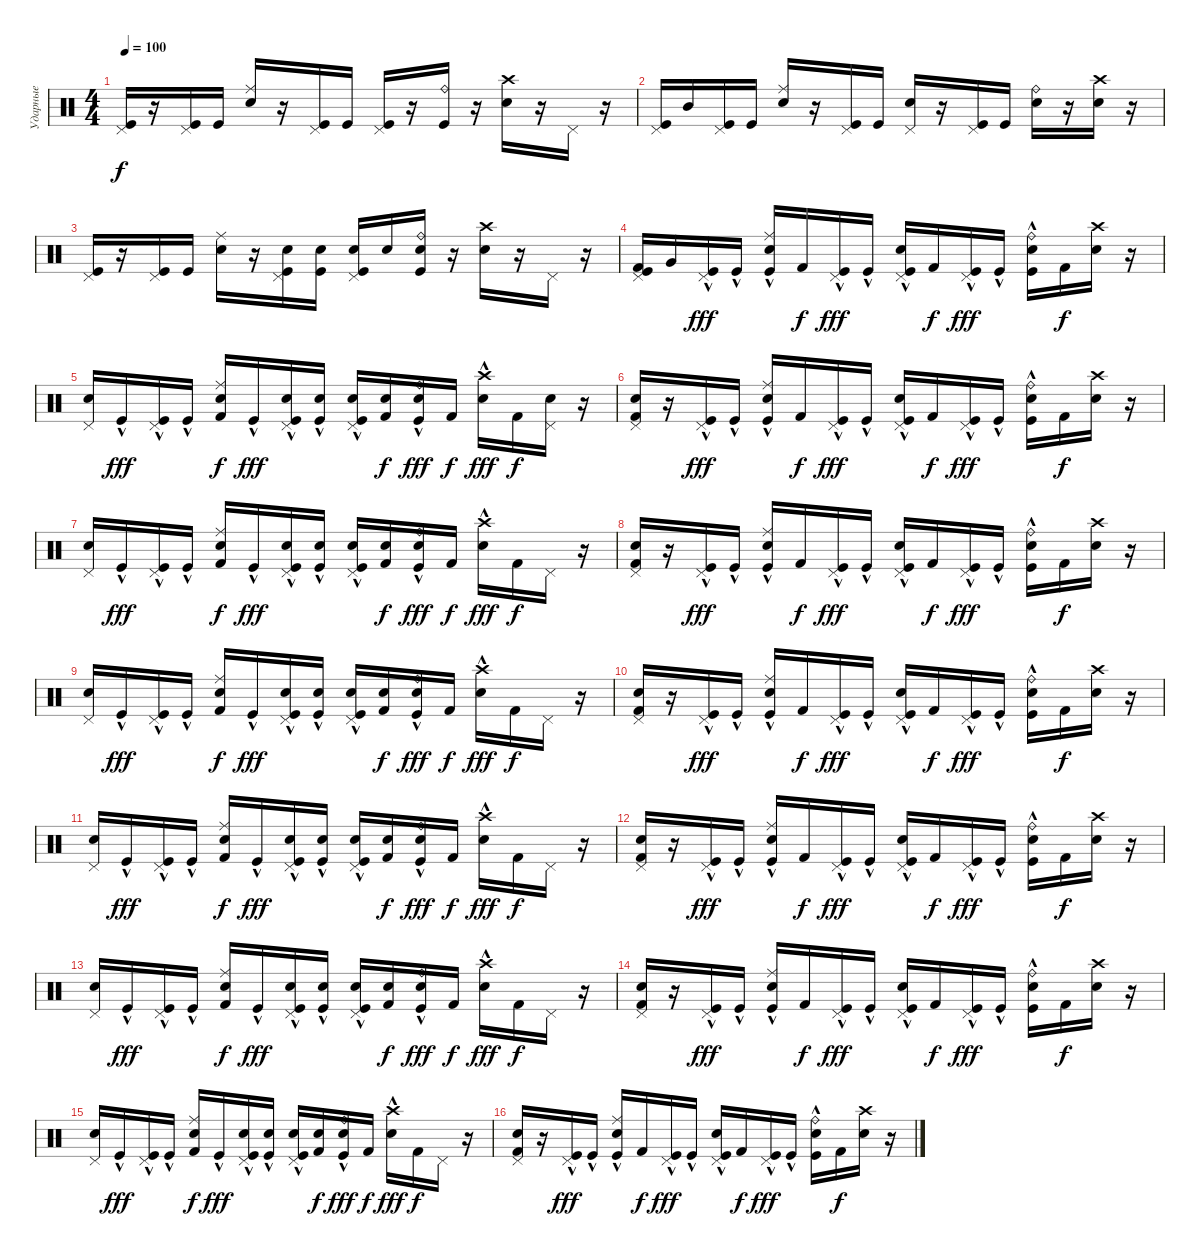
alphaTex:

\track ("Ударные" "Ударные") {instrument percussion}
\staff {score}
\articulation defaults
\ts (4 4)
\tempo 100
\clef neutral
\ks c
("Kick (hit)" "Pedal Hi-Hat (hit)").16{dy f} r.16 ("Kick (hit)" "Pedal Hi-Hat (hit)").16 "Kick (hit)".16 ("Electric Snare (hit)" "Ride (middle)").16 r.16 ("Kick (hit)" "Pedal Hi-Hat (hit)").16 "Kick (hit)".16 ("Kick (hit)" "Pedal Hi-Hat (hit)").16 r.16 ("Kick (hit)" "Ride (bell)").16 r.16 ("Electric Snare (hit)" "Crash high (hit)").16 r.16 "Pedal Hi-Hat (hit)".16 r.16 |
("Kick (hit)" "Pedal Hi-Hat (hit)").16 "Mid Tom (hit)".16 ("Kick (hit)" "Pedal Hi-Hat (hit)").16 "Kick (hit)".16 ("Electric Snare (hit)" "Ride (middle)").16 r.16 ("Kick (hit)" "Pedal Hi-Hat (hit)").16 "Kick (hit)".16 ("Snare (hit) 2" "Pedal Hi-Hat (hit)").16 r.16 ("Kick (hit)" "Pedal Hi-Hat (hit)").16 "Kick (hit)".16 ("Electric Snare (hit)" "Ride (bell)").16 r.16 ("Snare (hit) 2" "Crash high (hit)").16 r.16 |
("Kick (hit)" "Pedal Hi-Hat (hit)").16 r.16 ("Kick (hit)" "Pedal Hi-Hat (hit)").16 "Kick (hit)".16 ("Electric Snare (hit)" "Ride (middle)").16 r.16 ("Snare (hit) 2" "Kick (hit)" "Pedal Hi-Hat (hit)").16 ("Snare (hit) 2" "Kick (hit)").16 ("Snare (hit) 2" "Kick (hit)" "Pedal Hi-Hat (hit)").16 "Snare (hit) 2".16 ("Snare (hit) 2" "Kick (hit)" "Ride (bell)").16 r.16 ("Electric Snare (hit)" "Crash high (hit)").16 r.16 "Pedal Hi-Hat (hit)".16 r.16 |
("Kick (hit)" "Kick (hit) 2" "Pedal Hi-Hat (hit)").16 "Very Low Tom (hit)".16 ("Kick (hit)"{hac} "Pedal Hi-Hat (hit)").16{dy fff} "Kick (hit)"{hac}.16 ("Electric Snare (hit)" "Kick (hit)"{hac} "Ride (middle)").16 "Kick (hit) 2".16{dy f} ("Kick (hit)"{hac} "Pedal Hi-Hat (hit)").16{dy fff} "Kick (hit)"{hac}.16 ("Snare (hit) 2" "Kick (hit)"{hac} "Pedal Hi-Hat (hit)").16 "Kick (hit) 2".16{dy f} ("Kick (hit)"{hac} "Pedal Hi-Hat (hit)").16{dy fff} "Kick (hit)"{hac}.16 ("Electric Snare (hit)" "Kick (hit)"{hac} "Ride (bell)").16 "Kick (hit) 2".16{dy f} ("Snare (hit) 2" "Crash high (hit)").16 r.16 |
("Snare (hit) 2" "Pedal Hi-Hat (hit)").16 "Kick (hit)"{hac}.16{dy fff} ("Kick (hit)"{hac} "Pedal Hi-Hat (hit)").16 "Kick (hit)"{hac}.16 ("Electric Snare (hit)" "Kick (hit) 2" "Ride (middle)").16{dy f} "Kick (hit)"{hac}.16{dy fff} ("Snare (hit) 2" "Kick (hit)"{hac} "Pedal Hi-Hat (hit)").16 ("Snare (hit) 2" "Kick (hit)"{hac}).16 ("Snare (hit) 2" "Kick (hit)"{hac} "Pedal Hi-Hat (hit)").16 ("Snare (hit) 2" "Kick (hit) 2").16{dy f} ("Snare (hit) 2" "Kick (hit)"{hac} "Ride (bell)").16{dy fff} "Kick (hit) 2".16{dy f} ("Electric Snare (hit)"{hac} "Crash high (hit)").16{dy fff} "Kick (hit) 2".16{dy f} ("Pedal Hi-Hat (hit)" "Snare (hit) 2").16 r.16 |
("Snare (hit) 2" "Kick (hit) 2" "Pedal Hi-Hat (hit)").16 r.16 ("Kick (hit)"{hac} "Pedal Hi-Hat (hit)").16{dy fff} "Kick (hit)"{hac}.16 ("Electric Snare (hit)" "Kick (hit)"{hac} "Ride (middle)").16 "Kick (hit) 2".16{dy f} ("Kick (hit)"{hac} "Pedal Hi-Hat (hit)").16{dy fff} "Kick (hit)"{hac}.16 ("Snare (hit) 2" "Kick (hit)"{hac} "Pedal Hi-Hat (hit)").16 "Kick (hit) 2".16{dy f} ("Kick (hit)"{hac} "Pedal Hi-Hat (hit)").16{dy fff} "Kick (hit)"{hac}.16 ("Electric Snare (hit)" "Kick (hit)"{hac} "Ride (bell)").16 "Kick (hit) 2".16{dy f} ("Snare (hit) 2" "Crash high (hit)").16 r.16 |
("Snare (hit) 2" "Pedal Hi-Hat (hit)").16 "Kick (hit)"{hac}.16{dy fff} ("Kick (hit)"{hac} "Pedal Hi-Hat (hit)").16 "Kick (hit)"{hac}.16 ("Electric Snare (hit)" "Kick (hit) 2" "Ride (middle)").16{dy f} "Kick (hit)"{hac}.16{dy fff} ("Snare (hit) 2" "Kick (hit)"{hac} "Pedal Hi-Hat (hit)").16 ("Snare (hit) 2" "Kick (hit)"{hac}).16 ("Snare (hit) 2" "Kick (hit)"{hac} "Pedal Hi-Hat (hit)").16 ("Snare (hit) 2" "Kick (hit) 2").16{dy f} ("Snare (hit) 2" "Kick (hit)"{hac} "Ride (bell)").16{dy fff} "Kick (hit) 2".16{dy f} ("Electric Snare (hit)"{hac} "Crash high (hit)").16{dy fff} "Kick (hit) 2".16{dy f} "Pedal Hi-Hat (hit)".16 r.16 |
("Snare (hit) 2" "Kick (hit) 2" "Pedal Hi-Hat (hit)").16 r.16 ("Kick (hit)"{hac} "Pedal Hi-Hat (hit)").16{dy fff} "Kick (hit)"{hac}.16 ("Electric Snare (hit)" "Kick (hit)"{hac} "Ride (middle)").16 "Kick (hit) 2".16{dy f} ("Kick (hit)"{hac} "Pedal Hi-Hat (hit)").16{dy fff} "Kick (hit)"{hac}.16 ("Snare (hit) 2" "Kick (hit)"{hac} "Pedal Hi-Hat (hit)").16 "Kick (hit) 2".16{dy f} ("Kick (hit)"{hac} "Pedal Hi-Hat (hit)").16{dy fff} "Kick (hit)"{hac}.16 ("Electric Snare (hit)" "Kick (hit)"{hac} "Ride (bell)").16 "Kick (hit) 2".16{dy f} ("Snare (hit) 2" "Crash high (hit)").16 r.16 |
("Snare (hit) 2" "Pedal Hi-Hat (hit)").16 "Kick (hit)"{hac}.16{dy fff} ("Kick (hit)"{hac} "Pedal Hi-Hat (hit)").16 "Kick (hit)"{hac}.16 ("Electric Snare (hit)" "Kick (hit) 2" "Ride (middle)").16{dy f} "Kick (hit)"{hac}.16{dy fff} ("Snare (hit) 2" "Kick (hit)"{hac} "Pedal Hi-Hat (hit)").16 ("Snare (hit) 2" "Kick (hit)"{hac}).16 ("Snare (hit) 2" "Kick (hit)"{hac} "Pedal Hi-Hat (hit)").16 ("Snare (hit) 2" "Kick (hit) 2").16{dy f} ("Snare (hit) 2" "Kick (hit)"{hac} "Ride (bell)").16{dy fff} "Kick (hit) 2".16{dy f} ("Electric Snare (hit)"{hac} "Crash high (hit)").16{dy fff} "Kick (hit) 2".16{dy f} "Pedal Hi-Hat (hit)".16 r.16 |
("Snare (hit) 2" "Kick (hit) 2" "Pedal Hi-Hat (hit)").16 r.16 ("Kick (hit)"{hac} "Pedal Hi-Hat (hit)").16{dy fff} "Kick (hit)"{hac}.16 ("Electric Snare (hit)" "Kick (hit)"{hac} "Ride (middle)").16 "Kick (hit) 2".16{dy f} ("Kick (hit)"{hac} "Pedal Hi-Hat (hit)").16{dy fff} "Kick (hit)"{hac}.16 ("Snare (hit) 2" "Kick (hit)"{hac} "Pedal Hi-Hat (hit)").16 "Kick (hit) 2".16{dy f} ("Kick (hit)"{hac} "Pedal Hi-Hat (hit)").16{dy fff} "Kick (hit)"{hac}.16 ("Electric Snare (hit)" "Kick (hit)"{hac} "Ride (bell)").16 "Kick (hit) 2".16{dy f} ("Snare (hit) 2" "Crash high (hit)").16 r.16 |
("Snare (hit) 2" "Pedal Hi-Hat (hit)").16 "Kick (hit)"{hac}.16{dy fff} ("Kick (hit)"{hac} "Pedal Hi-Hat (hit)").16 "Kick (hit)"{hac}.16 ("Electric Snare (hit)" "Kick (hit) 2" "Ride (middle)").16{dy f} "Kick (hit)"{hac}.16{dy fff} ("Snare (hit) 2" "Kick (hit)"{hac} "Pedal Hi-Hat (hit)").16 ("Snare (hit) 2" "Kick (hit)"{hac}).16 ("Snare (hit) 2" "Kick (hit)"{hac} "Pedal Hi-Hat (hit)").16 ("Snare (hit) 2" "Kick (hit) 2").16{dy f} ("Snare (hit) 2" "Kick (hit)"{hac} "Ride (bell)").16{dy fff} "Kick (hit) 2".16{dy f} ("Electric Snare (hit)"{hac} "Crash high (hit)").16{dy fff} "Kick (hit) 2".16{dy f} "Pedal Hi-Hat (hit)".16 r.16 |
("Snare (hit) 2" "Kick (hit) 2" "Pedal Hi-Hat (hit)").16 r.16 ("Kick (hit)"{hac} "Pedal Hi-Hat (hit)").16{dy fff} "Kick (hit)"{hac}.16 ("Electric Snare (hit)" "Kick (hit)"{hac} "Ride (middle)").16 "Kick (hit) 2".16{dy f} ("Kick (hit)"{hac} "Pedal Hi-Hat (hit)").16{dy fff} "Kick (hit)"{hac}.16 ("Snare (hit) 2" "Kick (hit)"{hac} "Pedal Hi-Hat (hit)").16 "Kick (hit) 2".16{dy f} ("Kick (hit)"{hac} "Pedal Hi-Hat (hit)").16{dy fff} "Kick (hit)"{hac}.16 ("Electric Snare (hit)" "Kick (hit)"{hac} "Ride (bell)").16 "Kick (hit) 2".16{dy f} ("Snare (hit) 2" "Crash high (hit)").16 r.16 |
("Snare (hit) 2" "Pedal Hi-Hat (hit)").16 "Kick (hit)"{hac}.16{dy fff} ("Kick (hit)"{hac} "Pedal Hi-Hat (hit)").16 "Kick (hit)"{hac}.16 ("Electric Snare (hit)" "Kick (hit) 2" "Ride (middle)").16{dy f} "Kick (hit)"{hac}.16{dy fff} ("Snare (hit) 2" "Kick (hit)"{hac} "Pedal Hi-Hat (hit)").16 ("Snare (hit) 2" "Kick (hit)"{hac}).16 ("Snare (hit) 2" "Kick (hit)"{hac} "Pedal Hi-Hat (hit)").16 ("Snare (hit) 2" "Kick (hit) 2").16{dy f} ("Snare (hit) 2" "Kick (hit)"{hac} "Ride (bell)").16{dy fff} "Kick (hit) 2".16{dy f} ("Electric Snare (hit)"{hac} "Crash high (hit)").16{dy fff} "Kick (hit) 2".16{dy f} "Pedal Hi-Hat (hit)".16 r.16 |
("Snare (hit) 2" "Kick (hit) 2" "Pedal Hi-Hat (hit)").16 r.16 ("Kick (hit)"{hac} "Pedal Hi-Hat (hit)").16{dy fff} "Kick (hit)"{hac}.16 ("Electric Snare (hit)" "Kick (hit)"{hac} "Ride (middle)").16 "Kick (hit) 2".16{dy f} ("Kick (hit)"{hac} "Pedal Hi-Hat (hit)").16{dy fff} "Kick (hit)"{hac}.16 ("Snare (hit) 2" "Kick (hit)"{hac} "Pedal Hi-Hat (hit)").16 "Kick (hit) 2".16{dy f} ("Kick (hit)"{hac} "Pedal Hi-Hat (hit)").16{dy fff} "Kick (hit)"{hac}.16 ("Electric Snare (hit)" "Kick (hit)"{hac} "Ride (bell)").16 "Kick (hit) 2".16{dy f} ("Snare (hit) 2" "Crash high (hit)").16 r.16 |
("Snare (hit) 2" "Pedal Hi-Hat (hit)").16 "Kick (hit)"{hac}.16{dy fff} ("Kick (hit)"{hac} "Pedal Hi-Hat (hit)").16 "Kick (hit)"{hac}.16 ("Electric Snare (hit)" "Kick (hit) 2" "Ride (middle)").16{dy f} "Kick (hit)"{hac}.16{dy fff} ("Snare (hit) 2" "Kick (hit)"{hac} "Pedal Hi-Hat (hit)").16 ("Snare (hit) 2" "Kick (hit)"{hac}).16 ("Snare (hit) 2" "Kick (hit)"{hac} "Pedal Hi-Hat (hit)").16 ("Snare (hit) 2" "Kick (hit) 2").16{dy f} ("Snare (hit) 2" "Kick (hit)"{hac} "Ride (bell)").16{dy fff} "Kick (hit) 2".16{dy f} ("Electric Snare (hit)"{hac} "Crash high (hit)").16{dy fff} "Kick (hit) 2".16{dy f} "Pedal Hi-Hat (hit)".16 r.16 |
("Snare (hit) 2" "Kick (hit) 2" "Pedal Hi-Hat (hit)").16 r.16 ("Kick (hit)"{hac} "Pedal Hi-Hat (hit)").16{dy fff} "Kick (hit)"{hac}.16 ("Electric Snare (hit)" "Kick (hit)"{hac} "Ride (middle)").16 "Kick (hit) 2".16{dy f} ("Kick (hit)"{hac} "Pedal Hi-Hat (hit)").16{dy fff} "Kick (hit)"{hac}.16 ("Snare (hit) 2" "Kick (hit)"{hac} "Pedal Hi-Hat (hit)").16 "Kick (hit) 2".16{dy f} ("Kick (hit)"{hac} "Pedal Hi-Hat (hit)").16{dy fff} "Kick (hit)"{hac}.16 ("Electric Snare (hit)" "Kick (hit)"{hac} "Ride (bell)").16 "Kick (hit) 2".16{dy f} ("Snare (hit) 2" "Crash high (hit)").16 r.16
